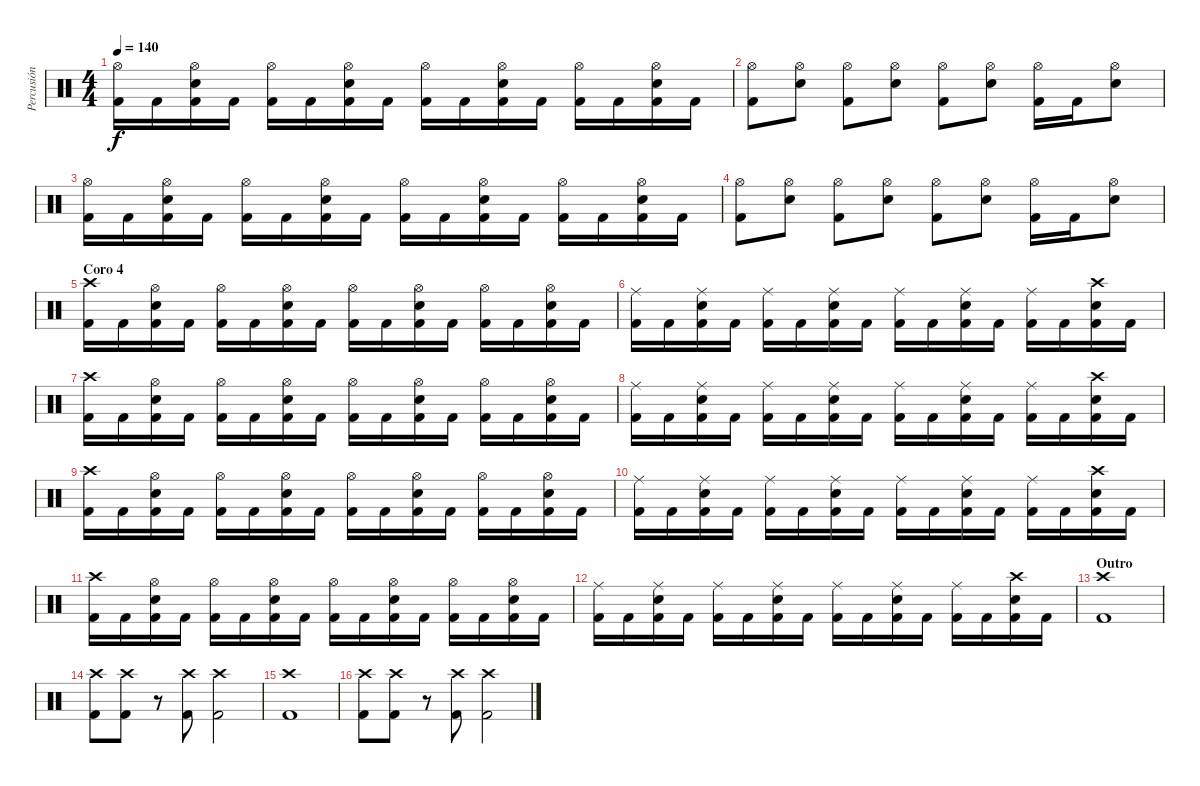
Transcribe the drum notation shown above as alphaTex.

\track ("Percusión" "Percusión") {instrument percussion}
\staff {score}
\articulation defaults
\ts (4 4)
\tempo 140
\clef neutral
\ks c
("Hi-Hat (open)" "Kick (hit) 2").16{dy f} "Kick (hit) 2".16 ("Hi-Hat (open)" "Snare (hit) 2" "Kick (hit) 2").16 "Kick (hit) 2".16 ("Hi-Hat (open)" "Kick (hit) 2").16 "Kick (hit) 2".16 ("Hi-Hat (open)" "Snare (hit) 2" "Kick (hit) 2").16 "Kick (hit) 2".16 ("Hi-Hat (open)" "Kick (hit) 2").16 "Kick (hit) 2".16 ("Hi-Hat (open)" "Snare (hit) 2" "Kick (hit) 2").16 "Kick (hit) 2".16 ("Hi-Hat (open)" "Kick (hit) 2").16 "Kick (hit) 2".16 ("Hi-Hat (open)" "Snare (hit) 2" "Kick (hit) 2").16 "Kick (hit) 2".16 |
("Hi-Hat (open)" "Kick (hit) 2").8 ("Hi-Hat (open)" "Snare (hit) 2").8 ("Hi-Hat (open)" "Kick (hit) 2").8 ("Hi-Hat (open)" "Snare (hit) 2").8 ("Hi-Hat (open)" "Kick (hit) 2").8 ("Hi-Hat (open)" "Snare (hit) 2").8 ("Hi-Hat (open)" "Kick (hit) 2").16 "Kick (hit) 2".16 ("Hi-Hat (open)" "Snare (hit) 2").8 |
("Hi-Hat (open)" "Kick (hit) 2").16 "Kick (hit) 2".16 ("Hi-Hat (open)" "Snare (hit) 2" "Kick (hit) 2").16 "Kick (hit) 2".16 ("Hi-Hat (open)" "Kick (hit) 2").16 "Kick (hit) 2".16 ("Hi-Hat (open)" "Snare (hit) 2" "Kick (hit) 2").16 "Kick (hit) 2".16 ("Hi-Hat (open)" "Kick (hit) 2").16 "Kick (hit) 2".16 ("Hi-Hat (open)" "Snare (hit) 2" "Kick (hit) 2").16 "Kick (hit) 2".16 ("Hi-Hat (open)" "Kick (hit) 2").16 "Kick (hit) 2".16 ("Hi-Hat (open)" "Snare (hit) 2" "Kick (hit) 2").16 "Kick (hit) 2".16 |
("Hi-Hat (open)" "Kick (hit) 2").8 ("Hi-Hat (open)" "Snare (hit) 2").8 ("Hi-Hat (open)" "Kick (hit) 2").8 ("Hi-Hat (open)" "Snare (hit) 2").8 ("Hi-Hat (open)" "Kick (hit) 2").8 ("Hi-Hat (open)" "Snare (hit) 2").8 ("Hi-Hat (open)" "Kick (hit) 2").16 "Kick (hit) 2".16 ("Hi-Hat (open)" "Snare (hit) 2").8 |
\section ("" "Coro 4")
("Crash high (hit)" "Kick (hit) 2").16 "Kick (hit) 2".16 ("Hi-Hat (open)" "Snare (hit) 2" "Kick (hit) 2").16 "Kick (hit) 2".16 ("Hi-Hat (open)" "Kick (hit) 2").16 "Kick (hit) 2".16 ("Hi-Hat (open)" "Snare (hit) 2" "Kick (hit) 2").16 "Kick (hit) 2".16 ("Hi-Hat (open)" "Kick (hit) 2").16 "Kick (hit) 2".16 ("Hi-Hat (open)" "Snare (hit) 2" "Kick (hit) 2").16 "Kick (hit) 2".16 ("Hi-Hat (open)" "Kick (hit) 2").16 "Kick (hit) 2".16 ("Hi-Hat (open)" "Snare (hit) 2" "Kick (hit) 2").16 "Kick (hit) 2".16 |
("Ride (middle)" "Kick (hit) 2").16 "Kick (hit) 2".16 ("Ride (middle)" "Snare (hit) 2" "Kick (hit) 2").16 "Kick (hit) 2".16 ("Ride (middle)" "Kick (hit) 2").16 "Kick (hit) 2".16 ("Ride (middle)" "Snare (hit) 2" "Kick (hit) 2").16 "Kick (hit) 2".16 ("Ride (middle)" "Kick (hit) 2").16 "Kick (hit) 2".16 ("Ride (middle)" "Snare (hit) 2" "Kick (hit) 2").16 "Kick (hit) 2".16 ("Ride (middle)" "Kick (hit) 2").16 "Kick (hit) 2".16 ("Crash high (hit)" "Snare (hit) 2" "Kick (hit) 2").16 "Kick (hit) 2".16 |
("Crash high (hit)" "Kick (hit) 2").16 "Kick (hit) 2".16 ("Hi-Hat (open)" "Snare (hit) 2" "Kick (hit) 2").16 "Kick (hit) 2".16 ("Hi-Hat (open)" "Kick (hit) 2").16 "Kick (hit) 2".16 ("Hi-Hat (open)" "Snare (hit) 2" "Kick (hit) 2").16 "Kick (hit) 2".16 ("Hi-Hat (open)" "Kick (hit) 2").16 "Kick (hit) 2".16 ("Hi-Hat (open)" "Snare (hit) 2" "Kick (hit) 2").16 "Kick (hit) 2".16 ("Hi-Hat (open)" "Kick (hit) 2").16 "Kick (hit) 2".16 ("Hi-Hat (open)" "Snare (hit) 2" "Kick (hit) 2").16 "Kick (hit) 2".16 |
("Ride (middle)" "Kick (hit) 2").16 "Kick (hit) 2".16 ("Ride (middle)" "Snare (hit) 2" "Kick (hit) 2").16 "Kick (hit) 2".16 ("Ride (middle)" "Kick (hit) 2").16 "Kick (hit) 2".16 ("Ride (middle)" "Snare (hit) 2" "Kick (hit) 2").16 "Kick (hit) 2".16 ("Ride (middle)" "Kick (hit) 2").16 "Kick (hit) 2".16 ("Ride (middle)" "Snare (hit) 2" "Kick (hit) 2").16 "Kick (hit) 2".16 ("Ride (middle)" "Kick (hit) 2").16 "Kick (hit) 2".16 ("Crash high (hit)" "Snare (hit) 2" "Kick (hit) 2").16 "Kick (hit) 2".16 |
("Crash high (hit)" "Kick (hit) 2").16 "Kick (hit) 2".16 ("Hi-Hat (open)" "Snare (hit) 2" "Kick (hit) 2").16 "Kick (hit) 2".16 ("Hi-Hat (open)" "Kick (hit) 2").16 "Kick (hit) 2".16 ("Hi-Hat (open)" "Snare (hit) 2" "Kick (hit) 2").16 "Kick (hit) 2".16 ("Hi-Hat (open)" "Kick (hit) 2").16 "Kick (hit) 2".16 ("Hi-Hat (open)" "Snare (hit) 2" "Kick (hit) 2").16 "Kick (hit) 2".16 ("Hi-Hat (open)" "Kick (hit) 2").16 "Kick (hit) 2".16 ("Hi-Hat (open)" "Snare (hit) 2" "Kick (hit) 2").16 "Kick (hit) 2".16 |
("Ride (middle)" "Kick (hit) 2").16 "Kick (hit) 2".16 ("Ride (middle)" "Snare (hit) 2" "Kick (hit) 2").16 "Kick (hit) 2".16 ("Ride (middle)" "Kick (hit) 2").16 "Kick (hit) 2".16 ("Ride (middle)" "Snare (hit) 2" "Kick (hit) 2").16 "Kick (hit) 2".16 ("Ride (middle)" "Kick (hit) 2").16 "Kick (hit) 2".16 ("Ride (middle)" "Snare (hit) 2" "Kick (hit) 2").16 "Kick (hit) 2".16 ("Ride (middle)" "Kick (hit) 2").16 "Kick (hit) 2".16 ("Crash high (hit)" "Snare (hit) 2" "Kick (hit) 2").16 "Kick (hit) 2".16 |
("Crash high (hit)" "Kick (hit) 2").16 "Kick (hit) 2".16 ("Hi-Hat (open)" "Snare (hit) 2" "Kick (hit) 2").16 "Kick (hit) 2".16 ("Hi-Hat (open)" "Kick (hit) 2").16 "Kick (hit) 2".16 ("Hi-Hat (open)" "Snare (hit) 2" "Kick (hit) 2").16 "Kick (hit) 2".16 ("Hi-Hat (open)" "Kick (hit) 2").16 "Kick (hit) 2".16 ("Hi-Hat (open)" "Snare (hit) 2" "Kick (hit) 2").16 "Kick (hit) 2".16 ("Hi-Hat (open)" "Kick (hit) 2").16 "Kick (hit) 2".16 ("Hi-Hat (open)" "Snare (hit) 2" "Kick (hit) 2").16 "Kick (hit) 2".16 |
("Ride (middle)" "Kick (hit) 2").16 "Kick (hit) 2".16 ("Ride (middle)" "Snare (hit) 2" "Kick (hit) 2").16 "Kick (hit) 2".16 ("Ride (middle)" "Kick (hit) 2").16 "Kick (hit) 2".16 ("Ride (middle)" "Snare (hit) 2" "Kick (hit) 2").16 "Kick (hit) 2".16 ("Ride (middle)" "Kick (hit) 2").16 "Kick (hit) 2".16 ("Ride (middle)" "Snare (hit) 2" "Kick (hit) 2").16 "Kick (hit) 2".16 ("Ride (middle)" "Kick (hit) 2").16 "Kick (hit) 2".16 ("Crash high (hit)" "Snare (hit) 2" "Kick (hit) 2").16 "Kick (hit) 2".16 |
\section ("" "Outro")
("Crash high (hit)" "Kick (hit) 2").1 |
("Crash high (hit)" "Kick (hit) 2").8 ("Crash high (hit)" "Kick (hit) 2").8 r.8 ("Crash high (hit)" "Kick (hit) 2").8 ("Crash high (hit)" "Kick (hit) 2").2 |
("Crash high (hit)" "Kick (hit) 2").1 |
("Crash high (hit)" "Kick (hit) 2").8 ("Crash high (hit)" "Kick (hit) 2").8 r.8 ("Crash high (hit)" "Kick (hit) 2").8 ("Crash high (hit)" "Kick (hit) 2").2
